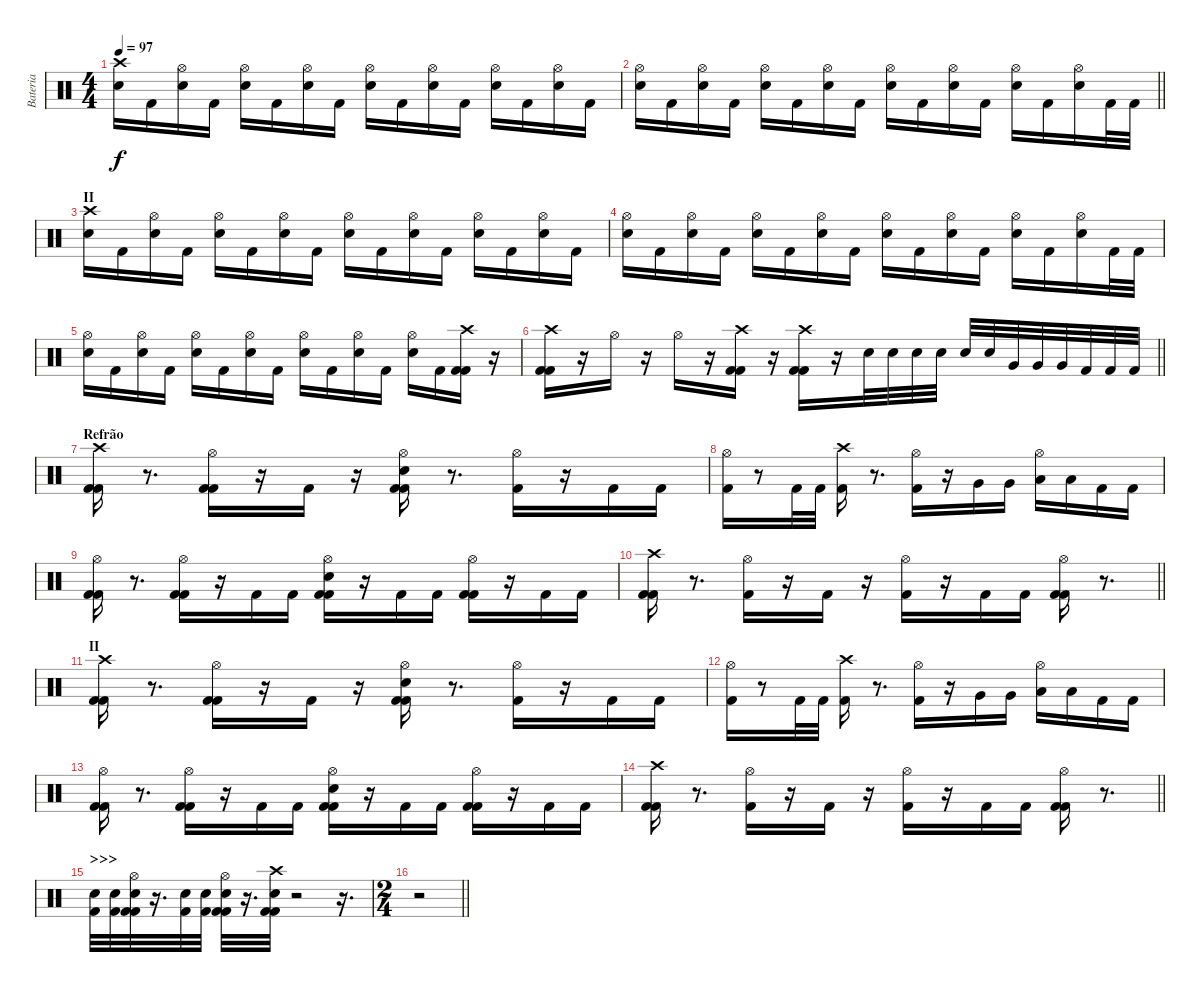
\track ("Bateria" "Bateria") {instrument percussion}
\staff {score}
\articulation defaults
\ts (4 4)
\tempo 97
\clef neutral
\ks c
("Crash high (hit)" "Electric Snare (hit)").16{dy f} "Kick (hit) 2".16 ("Hi-Hat (open)" "Electric Snare (hit)").16 "Kick (hit) 2".16 ("Hi-Hat (open)" "Electric Snare (hit)").16 "Kick (hit) 2".16 ("Hi-Hat (open)" "Electric Snare (hit)").16 "Kick (hit) 2".16 ("Hi-Hat (open)" "Electric Snare (hit)").16 "Kick (hit) 2".16 ("Hi-Hat (open)" "Electric Snare (hit)").16 "Kick (hit) 2".16 ("Hi-Hat (open)" "Electric Snare (hit)").16 "Kick (hit) 2".16 ("Hi-Hat (open)" "Electric Snare (hit)").16 "Kick (hit) 2".16 |
\barLineRight lightlight
("Hi-Hat (open)" "Electric Snare (hit)").16 "Kick (hit) 2".16 ("Hi-Hat (open)" "Electric Snare (hit)").16 "Kick (hit) 2".16 ("Hi-Hat (open)" "Electric Snare (hit)").16 "Kick (hit) 2".16 ("Hi-Hat (open)" "Electric Snare (hit)").16 "Kick (hit) 2".16 ("Hi-Hat (open)" "Electric Snare (hit)").16 "Kick (hit) 2".16 ("Hi-Hat (open)" "Electric Snare (hit)").16 "Kick (hit) 2".16 ("Hi-Hat (open)" "Electric Snare (hit)").16 "Kick (hit) 2".16 ("Hi-Hat (open)" "Electric Snare (hit)").16 "Kick (hit) 2".32 "Kick (hit) 2".32 |
\section ("" "II")
("Crash high (hit)" "Electric Snare (hit)").16 "Kick (hit) 2".16 ("Hi-Hat (open)" "Electric Snare (hit)").16 "Kick (hit) 2".16 ("Hi-Hat (open)" "Electric Snare (hit)").16 "Kick (hit) 2".16 ("Hi-Hat (open)" "Electric Snare (hit)").16 "Kick (hit) 2".16 ("Hi-Hat (open)" "Electric Snare (hit)").16 "Kick (hit) 2".16 ("Hi-Hat (open)" "Electric Snare (hit)").16 "Kick (hit) 2".16 ("Hi-Hat (open)" "Electric Snare (hit)").16 "Kick (hit) 2".16 ("Hi-Hat (open)" "Electric Snare (hit)").16 "Kick (hit) 2".16 |
("Hi-Hat (open)" "Electric Snare (hit)").16 "Kick (hit) 2".16 ("Hi-Hat (open)" "Electric Snare (hit)").16 "Kick (hit) 2".16 ("Hi-Hat (open)" "Electric Snare (hit)").16 "Kick (hit) 2".16 ("Hi-Hat (open)" "Electric Snare (hit)").16 "Kick (hit) 2".16 ("Hi-Hat (open)" "Electric Snare (hit)").16 "Kick (hit) 2".16 ("Hi-Hat (open)" "Electric Snare (hit)").16 "Kick (hit) 2".16 ("Hi-Hat (open)" "Electric Snare (hit)").16 "Kick (hit) 2".16 ("Hi-Hat (open)" "Electric Snare (hit)").16 "Kick (hit) 2".32 "Kick (hit) 2".32 |
("Hi-Hat (open)" "Electric Snare (hit)").16 "Kick (hit) 2".16 ("Hi-Hat (open)" "Electric Snare (hit)").16 "Kick (hit) 2".16 ("Hi-Hat (open)" "Electric Snare (hit)").16 "Kick (hit) 2".16 ("Hi-Hat (open)" "Electric Snare (hit)").16 "Kick (hit) 2".16 ("Hi-Hat (open)" "Electric Snare (hit)").16 "Kick (hit) 2".16 ("Hi-Hat (open)" "Electric Snare (hit)").16 "Kick (hit) 2".16 ("Hi-Hat (open)" "Electric Snare (hit)").16 "Kick (hit) 2".16 ("Crash high (hit)" "Kick (hit) 2" "Kick (hit) 2").16 r.16 |
\barLineRight lightlight
("Crash high (hit)" "Kick (hit) 2" "Kick (hit) 2").16 r.16 "Hi-Hat (open)".16 r.16 "Hi-Hat (open)".16 r.16 ("Crash high (hit)" "Kick (hit) 2" "Kick (hit) 2").16 r.16 ("Crash high (hit)" "Kick (hit) 2" "Kick (hit) 2").16 r.16 "Electric Snare (hit)".32 "Electric Snare (hit)".32 "Electric Snare (hit)".32 "Electric Snare (hit)".32 "Electric Snare (hit)".32 "Electric Snare (hit)".32 "Very Low Tom (hit)".32 "Very Low Tom (hit)".32 "Very Low Tom (hit)".32 "Kick (hit) 2".32 "Kick (hit) 2".32 "Kick (hit) 2".32 |
\section ("" "Refrão")
("Crash high (hit)" "Kick (hit) 2" "Kick (hit) 2").16 r.8{d} ("Hi-Hat (open)" "Kick (hit) 2" "Kick (hit) 2").16 r.16 "Kick (hit) 2".16 r.16 ("Hi-Hat (open)" "Electric Snare (hit)" "Kick (hit) 2" "Kick (hit) 2").16 r.8{d} ("Hi-Hat (open)" "Kick (hit) 2").16 r.16 "Kick (hit) 2".16 "Kick (hit) 2".16 |
("Hi-Hat (open)" "Kick (hit) 2").16 r.8 "Kick (hit) 2".32 "Kick (hit) 2".32 ("Crash high (hit)" "Kick (hit) 2").16 r.8{d} ("Hi-Hat (open)" "Kick (hit) 2").16 r.16 "Very Low Tom (hit)".16 "Very Low Tom (hit)".16 ("Hi-Hat (open)" "Low Floor Tom (hit)").16 "Low Floor Tom (hit)".16 "Kick (hit) 2".16 "Kick (hit) 2".16 |
("Hi-Hat (open)" "Kick (hit) 2" "Kick (hit) 2").16 r.8{d} ("Hi-Hat (open)" "Kick (hit) 2" "Kick (hit) 2").16 r.16 "Kick (hit) 2".16 "Kick (hit) 2".16 ("Hi-Hat (open)" "Electric Snare (hit)" "Kick (hit) 2" "Kick (hit) 2").16 r.16 "Kick (hit) 2".16 "Kick (hit) 2".16 ("Hi-Hat (open)" "Kick (hit) 2" "Kick (hit) 2").16 r.16 "Kick (hit) 2".16 "Kick (hit) 2".16 |
\barLineRight lightlight
("Crash high (hit)" "Kick (hit) 2" "Kick (hit) 2").16 r.8{d} ("Hi-Hat (open)" "Kick (hit) 2").16 r.16 "Kick (hit) 2".16 r.16 ("Hi-Hat (open)" "Kick (hit) 2").16 r.16 "Kick (hit) 2".16 "Kick (hit) 2".16 ("Hi-Hat (open)" "Kick (hit) 2" "Kick (hit) 2").16 r.8{d} |
\section ("" "II")
("Crash high (hit)" "Kick (hit) 2" "Kick (hit) 2").16 r.8{d} ("Hi-Hat (open)" "Kick (hit) 2" "Kick (hit) 2").16 r.16 "Kick (hit) 2".16 r.16 ("Hi-Hat (open)" "Electric Snare (hit)" "Kick (hit) 2" "Kick (hit) 2").16 r.8{d} ("Hi-Hat (open)" "Kick (hit) 2").16 r.16 "Kick (hit) 2".16 "Kick (hit) 2".16 |
("Hi-Hat (open)" "Kick (hit) 2").16 r.8 "Kick (hit) 2".32 "Kick (hit) 2".32 ("Crash high (hit)" "Kick (hit) 2").16 r.8{d} ("Hi-Hat (open)" "Kick (hit) 2").16 r.16 "Very Low Tom (hit)".16 "Very Low Tom (hit)".16 ("Hi-Hat (open)" "Low Floor Tom (hit)").16 "Low Floor Tom (hit)".16 "Kick (hit) 2".16 "Kick (hit) 2".16 |
("Hi-Hat (open)" "Kick (hit) 2" "Kick (hit) 2").16 r.8{d} ("Hi-Hat (open)" "Kick (hit) 2" "Kick (hit) 2").16 r.16 "Kick (hit) 2".16 "Kick (hit) 2".16 ("Hi-Hat (open)" "Electric Snare (hit)" "Kick (hit) 2" "Kick (hit) 2").16 r.16 "Kick (hit) 2".16 "Kick (hit) 2".16 ("Hi-Hat (open)" "Kick (hit) 2" "Kick (hit) 2").16 r.16 "Kick (hit) 2".16 "Kick (hit) 2".16 |
\barLineRight lightlight
("Crash high (hit)" "Kick (hit) 2" "Kick (hit) 2").16 r.8{d} ("Hi-Hat (open)" "Kick (hit) 2").16 r.16 "Kick (hit) 2".16 r.16 ("Hi-Hat (open)" "Kick (hit) 2").16 r.16 "Kick (hit) 2".16 "Kick (hit) 2".16 ("Hi-Hat (open)" "Kick (hit) 2" "Kick (hit) 2").16 r.8{d} |
\section ("" ">>>")
("Electric Snare (hit)" "Kick (hit) 2").32 ("Electric Snare (hit)" "Kick (hit) 2").32 ("Hi-Hat (open)" "Electric Snare (hit)" "Kick (hit) 2" "Kick (hit) 2").32 r.16{d} ("Electric Snare (hit)" "Kick (hit) 2").32 ("Electric Snare (hit)" "Kick (hit) 2").32 ("Hi-Hat (open)" "Electric Snare (hit)" "Kick (hit) 2" "Kick (hit) 2").32 r.16{d} ("Crash high (hit)" "Electric Snare (hit)" "Kick (hit) 2" "Kick (hit) 2").32 r.2 r.16{d} |
\ts (2 4)
\barLineRight lightlight
r.2
